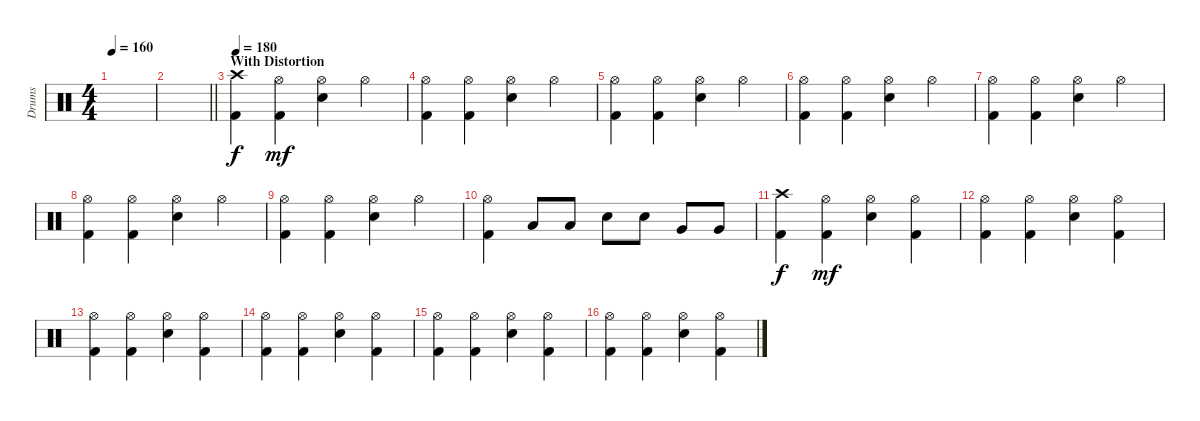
\track ("Drums" "Drums") {instrument percussion}
\staff {score}
\articulation defaults
\ts (4 4)
\tempo 160
\clef neutral
\ks c
|
\barLineRight lightlight
|
\section ("" "With Distortion")
\tempo 180
("Crash high (hit)" "Kick (hit) 2").4 ("Hi-Hat (open)" "Kick (hit) 2").4{dy mf} ("Hi-Hat (open)" "Snare (hit) 2").4 "Hi-Hat (open)".4 |
("Hi-Hat (open)" "Kick (hit) 2").4 ("Hi-Hat (open)" "Kick (hit) 2").4 ("Hi-Hat (open)" "Snare (hit) 2").4 "Hi-Hat (open)".4 |
("Hi-Hat (open)" "Kick (hit) 2").4 ("Hi-Hat (open)" "Kick (hit) 2").4 ("Hi-Hat (open)" "Snare (hit) 2").4 "Hi-Hat (open)".4 |
("Hi-Hat (open)" "Kick (hit) 2").4 ("Hi-Hat (open)" "Kick (hit) 2").4 ("Hi-Hat (open)" "Snare (hit) 2").4 "Hi-Hat (open)".4 |
("Hi-Hat (open)" "Kick (hit) 2").4 ("Hi-Hat (open)" "Kick (hit) 2").4 ("Hi-Hat (open)" "Snare (hit) 2").4 "Hi-Hat (open)".4 |
("Hi-Hat (open)" "Kick (hit) 2").4 ("Hi-Hat (open)" "Kick (hit) 2").4 ("Hi-Hat (open)" "Snare (hit) 2").4 "Hi-Hat (open)".4 |
("Hi-Hat (open)" "Kick (hit) 2").4 ("Hi-Hat (open)" "Kick (hit) 2").4 ("Hi-Hat (open)" "Snare (hit) 2").4 "Hi-Hat (open)".4 |
("Hi-Hat (open)" "Kick (hit) 2").4 "Low Tom (hit)".8 "Low Tom (hit)".8 "Snare (hit) 2".8 "Snare (hit) 2".8 "Very Low Tom (hit)".8 "Very Low Tom (hit)".8 |
("Crash high (hit)" "Kick (hit) 2").4{dy f} ("Hi-Hat (open)" "Kick (hit) 2").4{dy mf} ("Hi-Hat (open)" "Snare (hit) 2").4 ("Hi-Hat (open)" "Kick (hit) 2").4 |
("Hi-Hat (open)" "Kick (hit) 2").4 ("Hi-Hat (open)" "Kick (hit) 2").4 ("Hi-Hat (open)" "Snare (hit) 2").4 ("Hi-Hat (open)" "Kick (hit) 2").4 |
("Hi-Hat (open)" "Kick (hit) 2").4 ("Hi-Hat (open)" "Kick (hit) 2").4 ("Hi-Hat (open)" "Snare (hit) 2").4 ("Hi-Hat (open)" "Kick (hit) 2").4 |
("Hi-Hat (open)" "Kick (hit) 2").4 ("Hi-Hat (open)" "Kick (hit) 2").4 ("Hi-Hat (open)" "Snare (hit) 2").4 ("Hi-Hat (open)" "Kick (hit) 2").4 |
("Hi-Hat (open)" "Kick (hit) 2").4 ("Hi-Hat (open)" "Kick (hit) 2").4 ("Hi-Hat (open)" "Snare (hit) 2").4 ("Hi-Hat (open)" "Kick (hit) 2").4 |
("Hi-Hat (open)" "Kick (hit) 2").4 ("Hi-Hat (open)" "Kick (hit) 2").4 ("Hi-Hat (open)" "Snare (hit) 2").4 ("Hi-Hat (open)" "Kick (hit) 2").4
